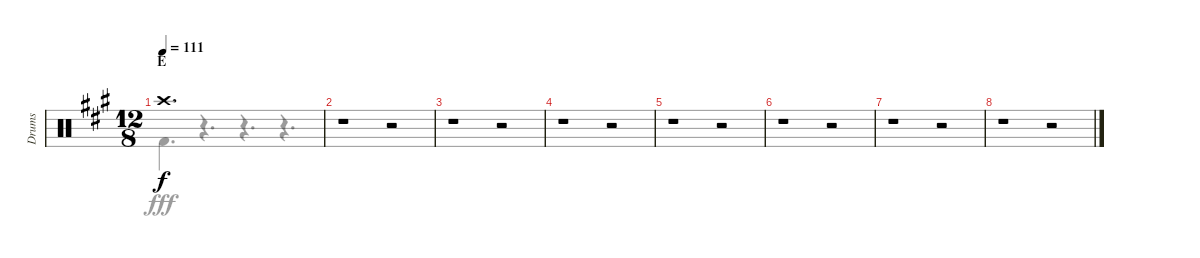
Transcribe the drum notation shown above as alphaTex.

\track ("Drums" "Drums") {instrument percussion}
\staff {score}
\articulation defaults
\voice
\ts (12 8)
\section ("" "E")
\tempo 111
\clef neutral
\ks a "Crash high (hit)".1{d dy f}
|
r.1 r.2 |
r.1 r.2 |
r.1 r.2 |
r.1 r.2 |
r.1 r.2 |
r.1 r.2 |
r.1 r.2
\voice
\clef neutral
\ottava regular
\simile none
\ks a "Kick (hit) 2".4{d dy fff}
r.4{d} r.4{d} r.4{d} |
r.1 r.2 |
r.1 r.2 |
r.1 r.2 |
r.1 r.2 |
r.1 r.2 |
r.1 r.2 |
r.1 r.2
